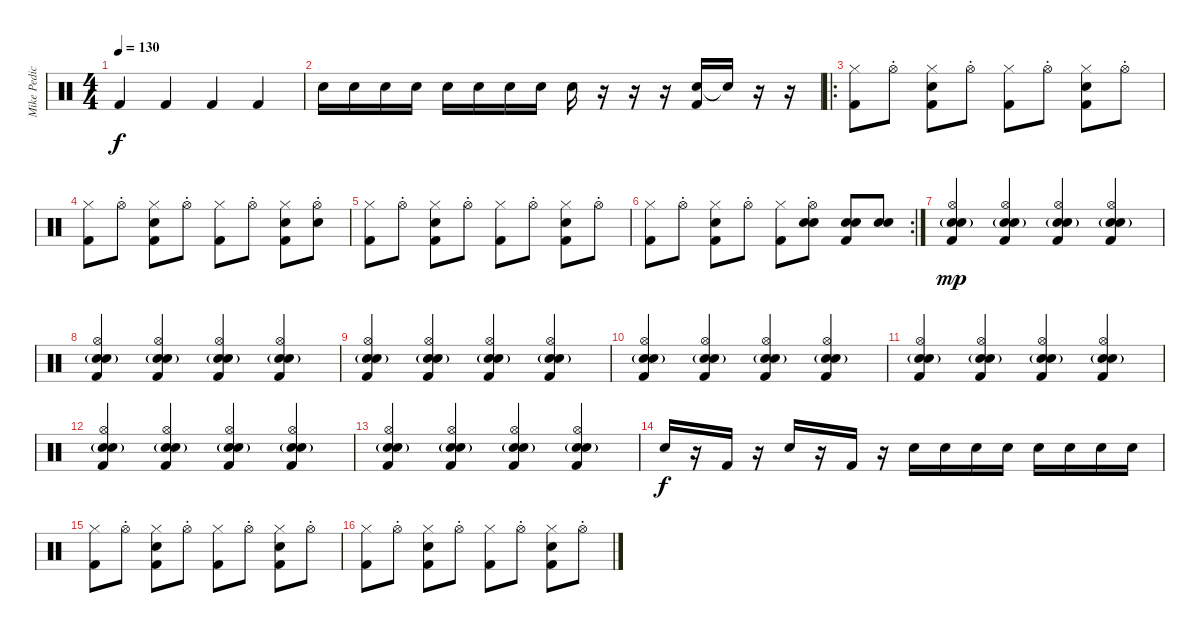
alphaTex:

\track ("Mike Pedicone - Drum" "Mike Pedic") {instrument percussion}
\staff {score}
\articulation defaults
\ts (4 4)
\tempo 130
\clef neutral
\ks c "Kick (hit) 2".4{dy f} "Kick (hit) 2".4 "Kick (hit) 2".4 "Kick (hit) 2".4
|
"Electric Snare (hit)".16 "Electric Snare (hit)".16 "Electric Snare (hit)".16 "Electric Snare (hit)".16 "Electric Snare (hit)".16 "Electric Snare (hit)".16 "Electric Snare (hit)".16 "Electric Snare (hit)".16 "Electric Snare (hit)".16 r.16 r.16 r.16 ("Electric Snare (hit)" "Kick (hit) 2").16 "Electric Snare (hit)"{t}.16 r.16 r.16 |
\ro
("Hi-Hat (closed)" "Kick (hit) 2").8 "Hi-Hat (open)"{st}.8 ("Hi-Hat (closed)" "Electric Snare (hit)" "Kick (hit) 2").8 "Hi-Hat (open)"{st}.8 ("Hi-Hat (closed)" "Kick (hit) 2").8 "Hi-Hat (open)"{st}.8 ("Hi-Hat (closed)" "Electric Snare (hit)" "Kick (hit) 2").8 "Hi-Hat (open)"{st}.8 |
("Hi-Hat (closed)" "Kick (hit) 2").8 "Hi-Hat (open)"{st}.8 ("Hi-Hat (closed)" "Electric Snare (hit)" "Kick (hit) 2").8 "Hi-Hat (open)"{st}.8 ("Hi-Hat (closed)" "Kick (hit) 2").8 "Hi-Hat (open)"{st}.8 ("Hi-Hat (closed)" "Electric Snare (hit)" "Kick (hit) 2").8 ("Hi-Hat (open)"{st} "Electric Snare (hit)").8 |
("Hi-Hat (closed)" "Kick (hit) 2").8 "Hi-Hat (open)"{st}.8 ("Hi-Hat (closed)" "Electric Snare (hit)" "Kick (hit) 2").8 "Hi-Hat (open)"{st}.8 ("Hi-Hat (closed)" "Kick (hit) 2").8 "Hi-Hat (open)"{st}.8 ("Hi-Hat (closed)" "Electric Snare (hit)" "Kick (hit) 2").8 "Hi-Hat (open)"{st}.8 |
\rc 2
("Hi-Hat (closed)" "Kick (hit) 2").8 "Hi-Hat (open)"{st}.8 ("Hi-Hat (closed)" "Electric Snare (hit)" "Kick (hit) 2").8 "Hi-Hat (open)"{st}.8 ("Hi-Hat (closed)" "Kick (hit) 2").8 ("Hi-Hat (open)"{st} "Hand Clap (hit)" "Electric Snare (hit)").8 ("Hand Clap (hit)" "Electric Snare (hit)" "Kick (hit) 2").8 ("Hand Clap (hit)" "Electric Snare (hit)").8 |
("Hi-Hat (open)" "Electric Snare (hit)" "Hand Clap (hit)"{g} "Kick (hit) 2").4{dy mp} ("Hi-Hat (open)" "Electric Snare (hit)" "Hand Clap (hit)"{g} "Kick (hit) 2").4 ("Hi-Hat (open)" "Electric Snare (hit)" "Hand Clap (hit)"{g} "Kick (hit) 2").4 ("Hi-Hat (open)" "Electric Snare (hit)" "Hand Clap (hit)"{g} "Kick (hit) 2").4 |
("Hi-Hat (open)" "Electric Snare (hit)" "Hand Clap (hit)"{g} "Kick (hit) 2").4 ("Hi-Hat (open)" "Electric Snare (hit)" "Hand Clap (hit)"{g} "Kick (hit) 2").4 ("Hi-Hat (open)" "Electric Snare (hit)" "Hand Clap (hit)"{g} "Kick (hit) 2").4 ("Hi-Hat (open)" "Electric Snare (hit)" "Hand Clap (hit)"{g} "Kick (hit) 2").4 |
("Hi-Hat (open)" "Electric Snare (hit)" "Hand Clap (hit)"{g} "Kick (hit) 2").4 ("Hi-Hat (open)" "Electric Snare (hit)" "Hand Clap (hit)"{g} "Kick (hit) 2").4 ("Hi-Hat (open)" "Electric Snare (hit)" "Hand Clap (hit)"{g} "Kick (hit) 2").4 ("Hi-Hat (open)" "Electric Snare (hit)" "Hand Clap (hit)"{g} "Kick (hit) 2").4 |
("Hi-Hat (open)" "Electric Snare (hit)" "Hand Clap (hit)"{g} "Kick (hit) 2").4 ("Hi-Hat (open)" "Electric Snare (hit)" "Hand Clap (hit)"{g} "Kick (hit) 2").4 ("Hi-Hat (open)" "Electric Snare (hit)" "Hand Clap (hit)"{g} "Kick (hit) 2").4 ("Hi-Hat (open)" "Electric Snare (hit)" "Hand Clap (hit)"{g} "Kick (hit) 2").4 |
("Hi-Hat (open)" "Electric Snare (hit)" "Hand Clap (hit)"{g} "Kick (hit) 2").4 ("Hi-Hat (open)" "Electric Snare (hit)" "Hand Clap (hit)"{g} "Kick (hit) 2").4 ("Hi-Hat (open)" "Electric Snare (hit)" "Hand Clap (hit)"{g} "Kick (hit) 2").4 ("Hi-Hat (open)" "Electric Snare (hit)" "Hand Clap (hit)"{g} "Kick (hit) 2").4 |
("Hi-Hat (open)" "Electric Snare (hit)" "Hand Clap (hit)"{g} "Kick (hit) 2").4 ("Hi-Hat (open)" "Electric Snare (hit)" "Hand Clap (hit)"{g} "Kick (hit) 2").4 ("Hi-Hat (open)" "Electric Snare (hit)" "Hand Clap (hit)"{g} "Kick (hit) 2").4 ("Hi-Hat (open)" "Electric Snare (hit)" "Hand Clap (hit)"{g} "Kick (hit) 2").4 |
("Hi-Hat (open)" "Electric Snare (hit)" "Hand Clap (hit)"{g} "Kick (hit) 2").4 ("Hi-Hat (open)" "Electric Snare (hit)" "Hand Clap (hit)"{g} "Kick (hit) 2").4 ("Hi-Hat (open)" "Electric Snare (hit)" "Hand Clap (hit)"{g} "Kick (hit) 2").4 ("Hi-Hat (open)" "Electric Snare (hit)" "Hand Clap (hit)"{g} "Kick (hit) 2").4 |
"Electric Snare (hit)".16{dy f} r.16 "Kick (hit) 2".16 r.16 "Electric Snare (hit)".16 r.16 "Kick (hit) 2".16 r.16 "Electric Snare (hit)".16 "Electric Snare (hit)".16 "Electric Snare (hit)".16 "Electric Snare (hit)".16 "Electric Snare (hit)".16 "Electric Snare (hit)".16 "Electric Snare (hit)".16 "Electric Snare (hit)".16 |
("Hi-Hat (closed)" "Kick (hit) 2").8 "Hi-Hat (open)"{st}.8 ("Hi-Hat (closed)" "Electric Snare (hit)" "Kick (hit) 2").8 "Hi-Hat (open)"{st}.8 ("Hi-Hat (closed)" "Kick (hit) 2").8 "Hi-Hat (open)"{st}.8 ("Hi-Hat (closed)" "Electric Snare (hit)" "Kick (hit) 2").8 "Hi-Hat (open)"{st}.8 |
("Hi-Hat (closed)" "Kick (hit) 2").8 "Hi-Hat (open)"{st}.8 ("Hi-Hat (closed)" "Electric Snare (hit)" "Kick (hit) 2").8 "Hi-Hat (open)"{st}.8 ("Hi-Hat (closed)" "Kick (hit) 2").8 "Hi-Hat (open)"{st}.8 ("Hi-Hat (closed)" "Electric Snare (hit)" "Kick (hit) 2").8 "Hi-Hat (open)"{st}.8
